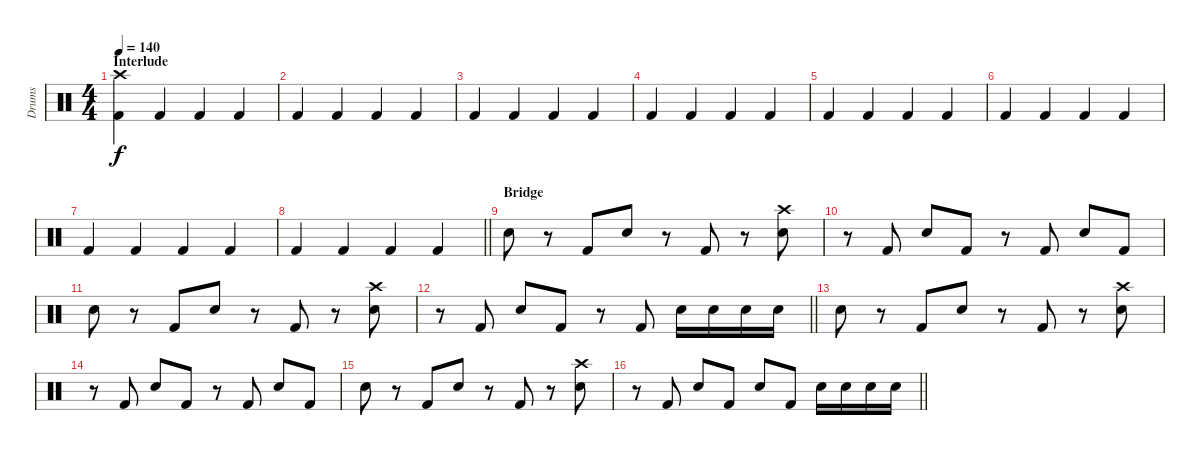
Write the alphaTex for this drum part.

\track ("Drums" "Drums") {instrument percussion}
\staff {score}
\articulation defaults
\ts (4 4)
\section ("" "Interlude")
\tempo 140
\clef neutral
\ks c
("Crash high (hit)" "Kick (hit) 2").4{dy f} "Kick (hit) 2".4 "Kick (hit) 2".4 "Kick (hit) 2".4 |
"Kick (hit) 2".4 "Kick (hit) 2".4 "Kick (hit) 2".4 "Kick (hit) 2".4 |
"Kick (hit) 2".4 "Kick (hit) 2".4 "Kick (hit) 2".4 "Kick (hit) 2".4 |
"Kick (hit) 2".4 "Kick (hit) 2".4 "Kick (hit) 2".4 "Kick (hit) 2".4 |
"Kick (hit) 2".4 "Kick (hit) 2".4 "Kick (hit) 2".4 "Kick (hit) 2".4 |
"Kick (hit) 2".4 "Kick (hit) 2".4 "Kick (hit) 2".4 "Kick (hit) 2".4 |
"Kick (hit) 2".4 "Kick (hit) 2".4 "Kick (hit) 2".4 "Kick (hit) 2".4 |
\barLineRight lightlight "Kick (hit) 2".4 "Kick (hit) 2".4 "Kick (hit) 2".4 "Kick (hit) 2".4
|
\section ("" "Bridge")
"Snare (hit) 2".8 r.8 "Kick (hit) 2".8 "Snare (hit) 2".8 r.8 "Kick (hit) 2".8 r.8 ("Crash high (hit)" "Snare (hit) 2").8 |
r.8 "Kick (hit) 2".8 "Snare (hit) 2".8 "Kick (hit) 2".8 r.8 "Kick (hit) 2".8 "Snare (hit) 2".8 "Kick (hit) 2".8 |
"Snare (hit) 2".8 r.8 "Kick (hit) 2".8 "Snare (hit) 2".8 r.8 "Kick (hit) 2".8 r.8 ("Crash high (hit)" "Snare (hit) 2").8 |
\barLineRight lightlight
r.8 "Kick (hit) 2".8 "Snare (hit) 2".8 "Kick (hit) 2".8 r.8 "Kick (hit) 2".8 "Snare (hit) 2".16 "Snare (hit) 2".16 "Snare (hit) 2".16 "Snare (hit) 2".16 |
"Snare (hit) 2".8 r.8 "Kick (hit) 2".8 "Snare (hit) 2".8 r.8 "Kick (hit) 2".8 r.8 ("Crash high (hit)" "Snare (hit) 2").8 |
r.8 "Kick (hit) 2".8 "Snare (hit) 2".8 "Kick (hit) 2".8 r.8 "Kick (hit) 2".8 "Snare (hit) 2".8 "Kick (hit) 2".8 |
"Snare (hit) 2".8 r.8 "Kick (hit) 2".8 "Snare (hit) 2".8 r.8 "Kick (hit) 2".8 r.8 ("Crash high (hit)" "Snare (hit) 2").8 |
\barLineRight lightlight
r.8 "Kick (hit) 2".8 "Snare (hit) 2".8 "Kick (hit) 2".8 "Snare (hit) 2".8 "Kick (hit) 2".8 "Snare (hit) 2".16 "Snare (hit) 2".16 "Snare (hit) 2".16 "Snare (hit) 2".16
